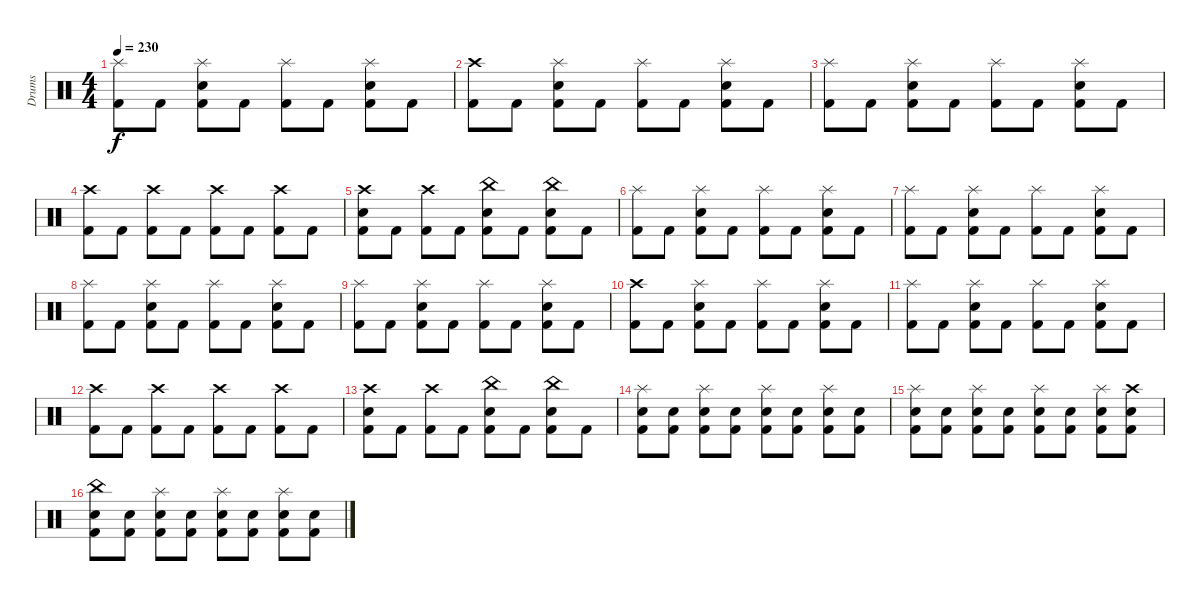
\track ("Drums" "Drums") {instrument percussion}
\staff {score}
\articulation defaults
\ts (4 4)
\tempo 230
\clef neutral
\ks c
("Splash (hit)" "Kick (hit) 2").8{dy f} "Kick (hit) 2".8 ("Splash (hit)" "Electric Snare (hit)" "Kick (hit) 2").8 "Kick (hit) 2".8 ("Splash (hit)" "Kick (hit) 2").8 "Kick (hit) 2".8 ("Splash (hit)" "Electric Snare (hit)" "Kick (hit) 2").8 "Kick (hit) 2".8 |
("Crash high (hit)" "Kick (hit) 2").8 "Kick (hit) 2".8 ("Splash (hit)" "Electric Snare (hit)" "Kick (hit) 2").8 "Kick (hit) 2".8 ("Splash (hit)" "Kick (hit) 2").8 "Kick (hit) 2".8 ("Splash (hit)" "Electric Snare (hit)" "Kick (hit) 2").8 "Kick (hit) 2".8 |
("Splash (hit)" "Kick (hit) 2").8 "Kick (hit) 2".8 ("Splash (hit)" "Electric Snare (hit)" "Kick (hit) 2").8 "Kick (hit) 2".8 ("Splash (hit)" "Kick (hit) 2").8 "Kick (hit) 2".8 ("Splash (hit)" "Electric Snare (hit)" "Kick (hit) 2").8 "Kick (hit) 2".8 |
("Crash high (hit)" "Kick (hit) 2").8 "Kick (hit) 2".8 ("Crash high (hit)" "Kick (hit) 2").8 "Kick (hit) 2".8 ("Crash high (hit)" "Kick (hit) 2").8 "Kick (hit) 2".8 ("Crash high (hit)" "Kick (hit) 2").8 "Kick (hit) 2".8 |
("Crash high (hit)" "Electric Snare (hit)" "Kick (hit) 2").8 "Kick (hit) 2".8 ("Crash high (hit)" "Kick (hit) 2").8 "Kick (hit) 2".8 ("China (hit)" "Electric Snare (hit)" "Kick (hit) 2").8 "Kick (hit) 2".8 ("China (hit)" "Electric Snare (hit)" "Kick (hit) 2").8 "Kick (hit) 2".8 |
("Splash (hit)" "Kick (hit) 2").8 "Kick (hit) 2".8 ("Splash (hit)" "Electric Snare (hit)" "Kick (hit) 2").8 "Kick (hit) 2".8 ("Splash (hit)" "Kick (hit) 2").8 "Kick (hit) 2".8 ("Splash (hit)" "Electric Snare (hit)" "Kick (hit) 2").8 "Kick (hit) 2".8 |
("Splash (hit)" "Kick (hit) 2").8 "Kick (hit) 2".8 ("Splash (hit)" "Electric Snare (hit)" "Kick (hit) 2").8 "Kick (hit) 2".8 ("Splash (hit)" "Kick (hit) 2").8 "Kick (hit) 2".8 ("Splash (hit)" "Electric Snare (hit)" "Kick (hit) 2").8 "Kick (hit) 2".8 |
("Splash (hit)" "Kick (hit) 2").8 "Kick (hit) 2".8 ("Splash (hit)" "Electric Snare (hit)" "Kick (hit) 2").8 "Kick (hit) 2".8 ("Splash (hit)" "Kick (hit) 2").8 "Kick (hit) 2".8 ("Splash (hit)" "Electric Snare (hit)" "Kick (hit) 2").8 "Kick (hit) 2".8 |
("Splash (hit)" "Kick (hit) 2").8 "Kick (hit) 2".8 ("Splash (hit)" "Electric Snare (hit)" "Kick (hit) 2").8 "Kick (hit) 2".8 ("Splash (hit)" "Kick (hit) 2").8 "Kick (hit) 2".8 ("Splash (hit)" "Electric Snare (hit)" "Kick (hit) 2").8 "Kick (hit) 2".8 |
("Crash high (hit)" "Kick (hit) 2").8 "Kick (hit) 2".8 ("Splash (hit)" "Electric Snare (hit)" "Kick (hit) 2").8 "Kick (hit) 2".8 ("Splash (hit)" "Kick (hit) 2").8 "Kick (hit) 2".8 ("Splash (hit)" "Electric Snare (hit)" "Kick (hit) 2").8 "Kick (hit) 2".8 |
("Splash (hit)" "Kick (hit) 2").8 "Kick (hit) 2".8 ("Splash (hit)" "Electric Snare (hit)" "Kick (hit) 2").8 "Kick (hit) 2".8 ("Splash (hit)" "Kick (hit) 2").8 "Kick (hit) 2".8 ("Splash (hit)" "Electric Snare (hit)" "Kick (hit) 2").8 "Kick (hit) 2".8 |
("Crash high (hit)" "Kick (hit) 2").8 "Kick (hit) 2".8 ("Crash high (hit)" "Kick (hit) 2").8 "Kick (hit) 2".8 ("Crash high (hit)" "Kick (hit) 2").8 "Kick (hit) 2".8 ("Crash high (hit)" "Kick (hit) 2").8 "Kick (hit) 2".8 |
("Crash high (hit)" "Electric Snare (hit)" "Kick (hit) 2").8 "Kick (hit) 2".8 ("Crash high (hit)" "Kick (hit) 2").8 "Kick (hit) 2".8 ("China (hit)" "Electric Snare (hit)" "Kick (hit) 2").8 "Kick (hit) 2".8 ("China (hit)" "Electric Snare (hit)" "Kick (hit) 2").8 "Kick (hit) 2".8 |
\section ("" "")
("Splash (hit)" "Electric Snare (hit)" "Kick (hit) 2").8 ("Electric Snare (hit)" "Kick (hit) 2").8 ("Splash (hit)" "Electric Snare (hit)" "Kick (hit) 2").8 ("Electric Snare (hit)" "Kick (hit) 2").8 ("Splash (hit)" "Electric Snare (hit)" "Kick (hit) 2").8 ("Electric Snare (hit)" "Kick (hit) 2").8 ("Splash (hit)" "Electric Snare (hit)" "Kick (hit) 2").8 ("Electric Snare (hit)" "Kick (hit) 2").8 |
("Splash (hit)" "Electric Snare (hit)" "Kick (hit) 2").8 ("Electric Snare (hit)" "Kick (hit) 2").8 ("Splash (hit)" "Electric Snare (hit)" "Kick (hit) 2").8 ("Electric Snare (hit)" "Kick (hit) 2").8 ("Splash (hit)" "Electric Snare (hit)" "Kick (hit) 2").8 ("Electric Snare (hit)" "Kick (hit) 2").8 ("Splash (hit)" "Electric Snare (hit)" "Kick (hit) 2").8 ("Crash high (hit)" "Electric Snare (hit)" "Kick (hit) 2").8 |
("China (hit)" "Electric Snare (hit)" "Kick (hit) 2").8 ("Electric Snare (hit)" "Kick (hit) 2").8 ("Splash (hit)" "Electric Snare (hit)" "Kick (hit) 2").8 ("Electric Snare (hit)" "Kick (hit) 2").8 ("Splash (hit)" "Electric Snare (hit)" "Kick (hit) 2").8 ("Electric Snare (hit)" "Kick (hit) 2").8 ("Splash (hit)" "Electric Snare (hit)" "Kick (hit) 2").8 ("Electric Snare (hit)" "Kick (hit) 2").8
